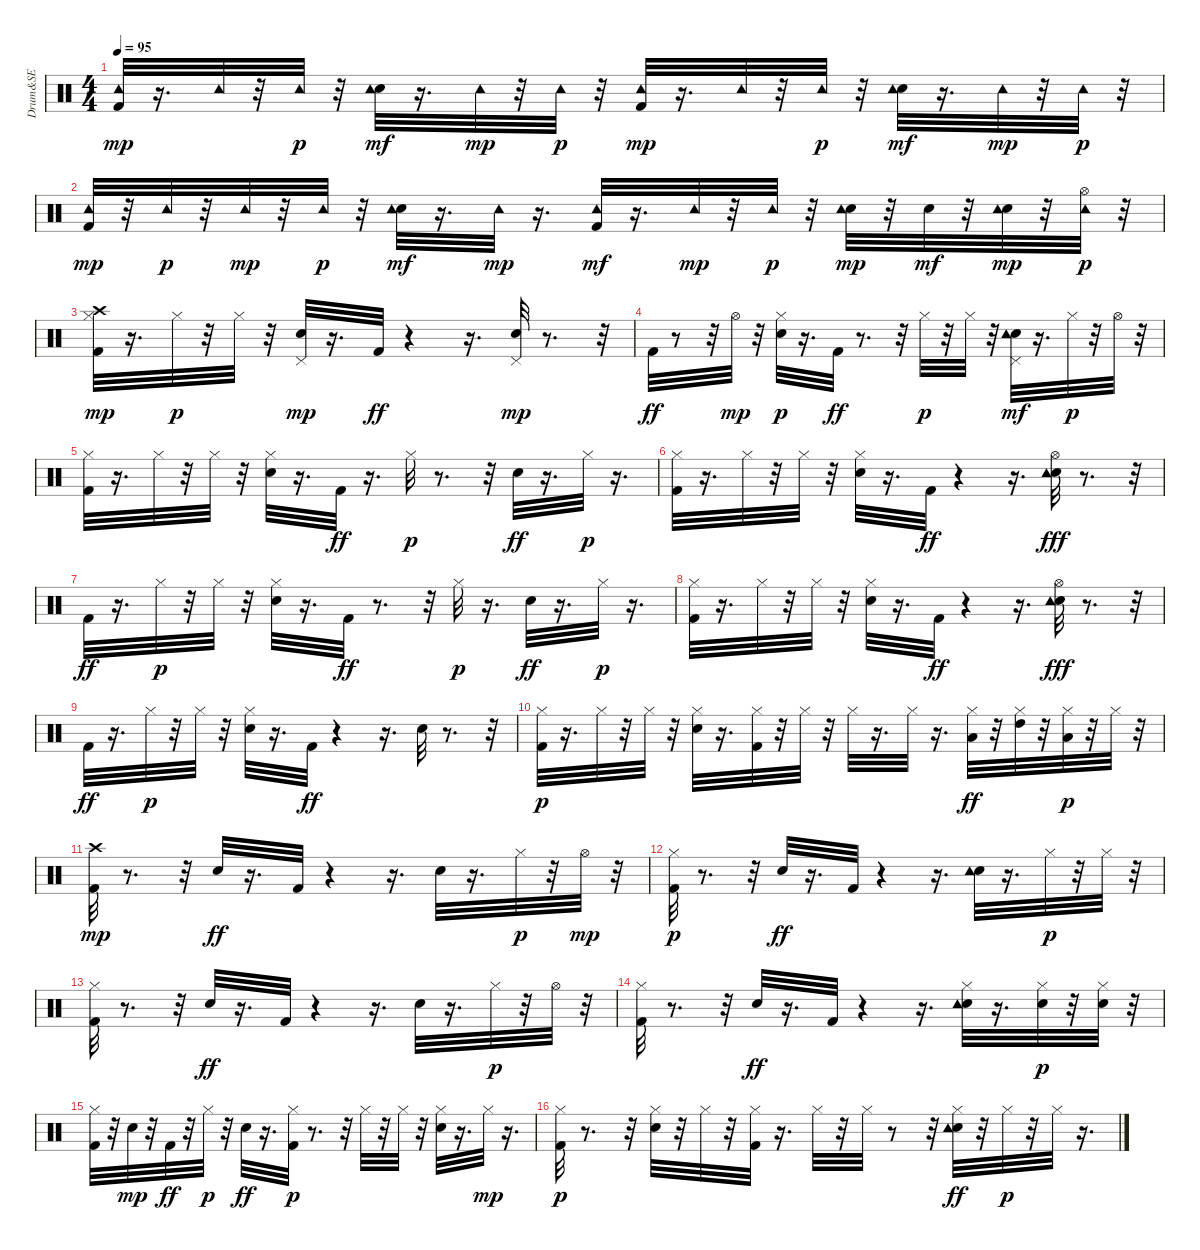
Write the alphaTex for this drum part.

\track ("Drum&SE" "Drum&SE") {instrument percussion}
\staff {score}
\articulation defaults
\ts (4 4)
\tempo 95
\clef neutral
\ks c
("Kick (hit) 2" "Tambourine (hit)").32{dy mp} r.16{d} "Tambourine (hit)".32 r.32 "Tambourine (hit)".32{dy p} r.32 ("Snare (hit) 2" "Tambourine (hit)").32{dy mf} r.16{d} "Tambourine (hit)".32{dy mp} r.32 "Tambourine (hit)".32{dy p} r.32 ("Kick (hit) 2" "Tambourine (hit)").32{dy mp} r.16{d} "Tambourine (hit)".32 r.32 "Tambourine (hit)".32{dy p} r.32 ("Snare (hit) 2" "Tambourine (hit)").32{dy mf} r.16{d} "Tambourine (hit)".32{dy mp} r.32 "Tambourine (hit)".32{dy p} r.32 |
("Kick (hit) 2" "Tambourine (hit)").32{dy mp} r.32 "Tambourine (hit)".32{dy p} r.32 "Tambourine (hit)".32{dy mp} r.32 "Tambourine (hit)".32{dy p} r.32 ("Snare (hit) 2" "Tambourine (hit)").32{dy mf} r.16{d} "Tambourine (hit)".32{dy mp} r.16{d} ("Kick (hit) 2" "Tambourine (hit)").32{dy mf} r.16{d} "Tambourine (hit)".32{dy mp} r.32 "Tambourine (hit)".32{dy p} r.32 ("Snare (hit) 2" "Tambourine (hit)").32{dy mp} r.32 "Snare (hit) 2".32{dy mf} r.32 ("Snare (hit) 2" "Tambourine (hit)").32{dy mp} r.32 ("Hi-Hat (open)" "Tambourine (hit)").32{dy p} r.32 |
("Kick (hit) 2" "Hi-Hat (closed)" "Crash high (hit)").32{dy mp} r.16{d} "Hi-Hat (closed)".32{dy p} r.32 "Hi-Hat (closed)".32 r.32 ("Snare (hit) 2" "Pedal Hi-Hat (hit)").32{dy mp} r.16{d} "Kick (hit) 2".32{dy ff} r.4 r.16{d} ("Snare (hit) 2" "Pedal Hi-Hat (hit)").32{dy mp} r.8{d} r.32 |
"Kick (hit) 2".32{dy ff} r.8 r.32 "Hi-Hat (open)".32{dy mp} r.32 ("Snare (hit) 2" "Hi-Hat (closed)").32{dy p} r.16{d} "Kick (hit) 2".32{dy ff} r.8{d} r.32 "Hi-Hat (closed)".32{dy p} r.32 "Hi-Hat (closed)".32 r.32 ("Snare (hit) 2" "Pedal Hi-Hat (hit)" "Tambourine (hit)").32{dy mf} r.16{d} "Hi-Hat (closed)".32{dy p} r.32 "Hi-Hat (open)".32 r.32 |
("Kick (hit) 2" "Hi-Hat (closed)").32 r.16{d} "Hi-Hat (closed)".32 r.32 "Hi-Hat (closed)".32 r.32 ("Snare (hit) 2" "Hi-Hat (closed)").32 r.16{d} "Kick (hit) 2".32{dy ff} r.16{d} "Hi-Hat (closed)".32{dy p} r.8{d} r.32 "Snare (hit) 2".32{dy ff} r.16{d} "Hi-Hat (closed)".32{dy p} r.16{d} |
("Kick (hit) 2" "Hi-Hat (closed)").32 r.16{d} "Hi-Hat (closed)".32 r.32 "Hi-Hat (closed)".32 r.32 ("Snare (hit) 2" "Hi-Hat (closed)").32 r.16{d} "Kick (hit) 2".32{dy ff} r.4 r.16{d} ("Snare (hit) 2" "Hi-Hat (open)" "Tambourine (hit)").32{dy fff} r.8{d} r.32 |
"Kick (hit) 2".32{dy ff} r.16{d} "Hi-Hat (closed)".32{dy p} r.32 "Hi-Hat (closed)".32 r.32 ("Snare (hit) 2" "Hi-Hat (closed)").32 r.16{d} "Kick (hit) 2".32{dy ff} r.8{d} r.32 "Hi-Hat (closed)".32{dy p} r.16{d} "Snare (hit) 2".32{dy ff} r.16{d} "Hi-Hat (closed)".32{dy p} r.16{d} |
("Kick (hit) 2" "Hi-Hat (closed)").32 r.16{d} "Hi-Hat (closed)".32 r.32 "Hi-Hat (closed)".32 r.32 ("Snare (hit) 2" "Hi-Hat (closed)").32 r.16{d} "Kick (hit) 2".32{dy ff} r.4 r.16{d} ("Snare (hit) 2" "Hi-Hat (open)" "Tambourine (hit)").32{dy fff} r.8{d} r.32 |
"Kick (hit) 2".32{dy ff} r.16{d} "Hi-Hat (closed)".32{dy p} r.32 "Hi-Hat (closed)".32 r.32 ("Snare (hit) 2" "Hi-Hat (closed)").32 r.16{d} "Kick (hit) 2".32{dy ff} r.4 r.16{d} "Snare (hit) 2".32 r.8{d} r.32 |
("Kick (hit) 2" "Hi-Hat (closed)").32{dy p} r.16{d} "Hi-Hat (closed)".32 r.32 "Hi-Hat (closed)".32 r.32 ("Snare (hit) 2" "Hi-Hat (closed)").32 r.16{d} ("Kick (hit) 2" "Hi-Hat (closed)").32 r.32 "Hi-Hat (closed)".32 r.32 "Hi-Hat (closed)".32 r.16{d} "Hi-Hat (closed)".32 r.16{d} ("Hi-Hat (closed)" "Low Tom (hit)").32{dy ff} r.32 ("Hi-Hat (closed)" "High Tom (hit)").32 r.32 ("Low Floor Tom (hit)" "Hi-Hat (closed)").32{dy p} r.32 "Hi-Hat (closed)".32 r.32 |
("Kick (hit) 2" "Crash high (hit)").32{dy mp} r.8{d} r.32 "Snare (hit) 2".32{dy ff} r.16{d} "Kick (hit) 2".32 r.4 r.16{d} "Snare (hit) 2".32 r.16{d} "Hi-Hat (closed)".32{dy p} r.32 "Hi-Hat (open)".32{dy mp} r.32 |
("Kick (hit) 2" "Hi-Hat (closed)").32{dy p} r.8{d} r.32 "Snare (hit) 2".32{dy ff} r.16{d} "Kick (hit) 2".32 r.4 r.16{d} ("Snare (hit) 2" "Tambourine (hit)").32 r.16{d} "Hi-Hat (closed)".32{dy p} r.32 "Hi-Hat (closed)".32 r.32 |
("Kick (hit) 2" "Hi-Hat (closed)").32 r.8{d} r.32 "Snare (hit) 2".32{dy ff} r.16{d} "Kick (hit) 2".32 r.4 r.16{d} "Snare (hit) 2".32 r.16{d} "Hi-Hat (closed)".32{dy p} r.32 "Hi-Hat (open)".32 r.32 |
("Kick (hit) 2" "Hi-Hat (closed)").32 r.8{d} r.32 "Snare (hit) 2".32{dy ff} r.16{d} "Kick (hit) 2".32 r.4 r.16{d} ("Snare (hit) 2" "Hi-Hat (closed)" "Tambourine (hit)").32 r.16{d} ("Snare (hit) 2" "Hi-Hat (closed)").32{dy p} r.32 ("Snare (hit) 2" "Hi-Hat (closed)").32 r.32 |
("Kick (hit) 2" "Hi-Hat (closed)").32 r.32 "Snare (hit) 2".32{dy mp} r.32 "Kick (hit) 2".32{dy ff} r.32 "Hi-Hat (closed)".32{dy p} r.32 "Snare (hit) 2".32{dy ff} r.16{d} ("Kick (hit) 2" "Hi-Hat (closed)").32{dy p} r.8{d} r.32 "Hi-Hat (closed)".32 r.32 "Hi-Hat (closed)".32 r.32 ("Snare (hit) 2" "Hi-Hat (closed)").32 r.16{d} "Hi-Hat (closed)".32{dy mp} r.16{d} |
("Kick (hit) 2" "Hi-Hat (closed)").32{dy p} r.8{d} r.32 ("Snare (hit) 2" "Hi-Hat (closed)").32 r.32 "Hi-Hat (closed)".32 r.32 ("Kick (hit) 2" "Hi-Hat (closed)").32 r.16{d} "Hi-Hat (closed)".32 r.32 "Hi-Hat (closed)".32 r.8 r.32 ("Snare (hit) 2" "Hi-Hat (closed)" "Tambourine (hit)").32{dy ff} r.32 "Hi-Hat (closed)".32{dy p} r.32 "Hi-Hat (closed)".32 r.16{d}
